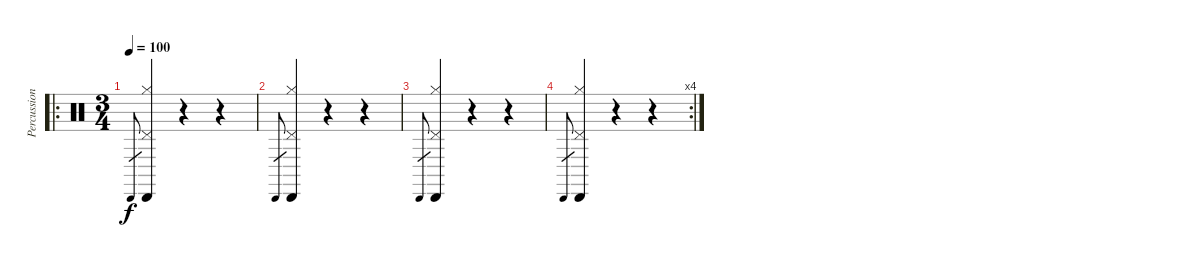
\track ("Percussion" "Percussion") {instrument percussion}
\staff {score}
\articulation defaults
\ro
\ts (3 4)
\tempo 100
\clef neutral
\ks c "Cabasa (hit)".8{gr dy f}
("Pedal Hi-Hat (hit)" "Cabasa (hit)" "Hi-Hat (closed)").4 r.4 r.4 |
"Cabasa (hit)".8{gr} ("Pedal Hi-Hat (hit)" "Cabasa (hit)" "Hi-Hat (closed)").4 r.4 r.4 |
"Cabasa (hit)".8{gr} ("Pedal Hi-Hat (hit)" "Cabasa (hit)" "Hi-Hat (closed)").4 r.4 r.4 |
\rc 4 "Cabasa (hit)".8{gr}
("Pedal Hi-Hat (hit)" "Cabasa (hit)" "Hi-Hat (closed)").4 r.4 r.4
